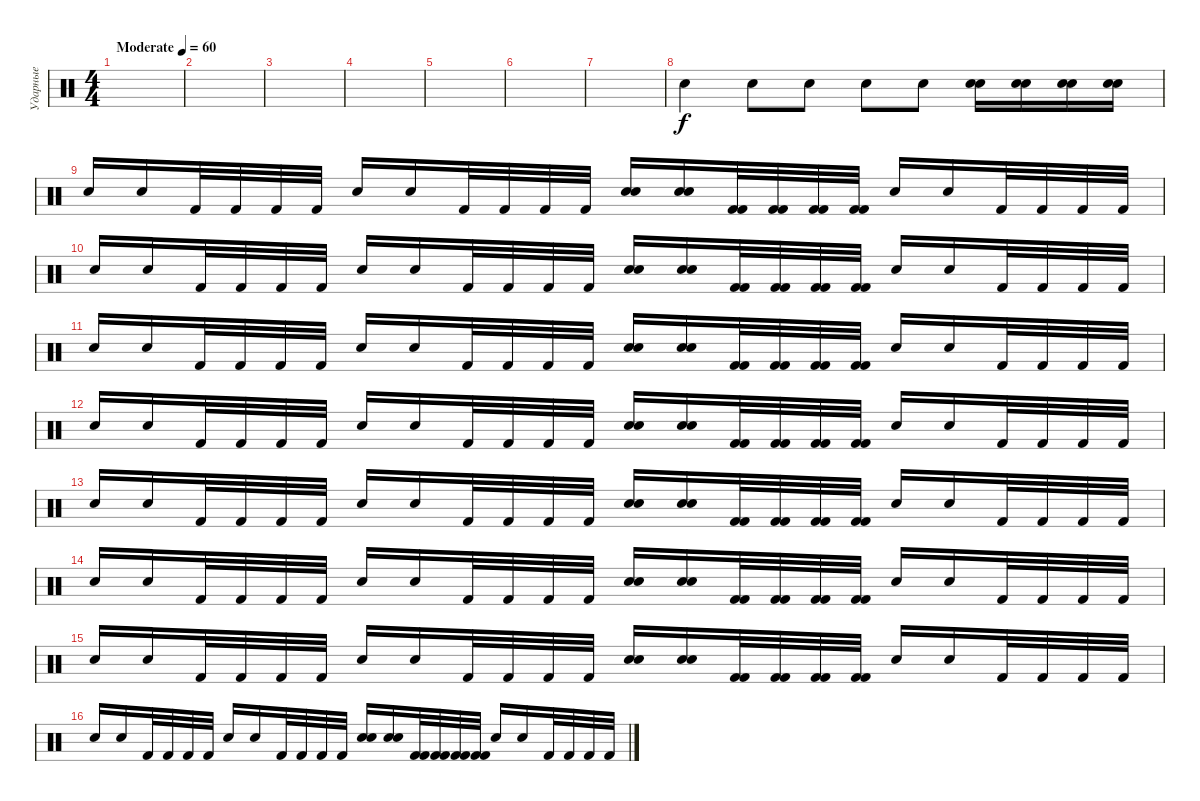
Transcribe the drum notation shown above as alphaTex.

\track ("Ударные" "Ударные") {instrument percussion}
\staff {score}
\articulation defaults
\ts (4 4)
\tempo (60 "Moderate")
\clef neutral
\ks c
|
|
|
|
|
|
|
"Snare (hit)".4 "Electric Snare (hit)".8 "Electric Snare (hit)".8 "Electric Snare (hit)".8 "Electric Snare (hit)".8 ("Electric Snare (hit)" "Electric Snare (hit)").16 ("Electric Snare (hit)" "Electric Snare (hit)").16 ("Electric Snare (hit)" "Electric Snare (hit)").16 ("Electric Snare (hit)" "Electric Snare (hit)").16 |
"Electric Snare (hit)".16 "Electric Snare (hit)".16 "Kick (hit) 2".32 "Kick (hit) 2".32 "Kick (hit) 2".32 "Kick (hit) 2".32 "Electric Snare (hit)".16 "Electric Snare (hit)".16 "Kick (hit) 2".32 "Kick (hit) 2".32 "Kick (hit) 2".32 "Kick (hit) 2".32 ("Electric Snare (hit)" "Electric Snare (hit)").16 ("Electric Snare (hit)" "Electric Snare (hit)").16 ("Kick (hit) 2" "Kick (hit) 2").32 ("Kick (hit) 2" "Kick (hit) 2").32 ("Kick (hit) 2" "Kick (hit) 2").32 ("Kick (hit) 2" "Kick (hit) 2").32 "Electric Snare (hit)".16 "Electric Snare (hit)".16 "Kick (hit) 2".32 "Kick (hit) 2".32 "Kick (hit) 2".32 "Kick (hit) 2".32 |
"Electric Snare (hit)".16 "Electric Snare (hit)".16 "Kick (hit) 2".32 "Kick (hit) 2".32 "Kick (hit) 2".32 "Kick (hit) 2".32 "Electric Snare (hit)".16 "Electric Snare (hit)".16 "Kick (hit) 2".32 "Kick (hit) 2".32 "Kick (hit) 2".32 "Kick (hit) 2".32 ("Electric Snare (hit)" "Electric Snare (hit)").16 ("Electric Snare (hit)" "Electric Snare (hit)").16 ("Kick (hit) 2" "Kick (hit) 2").32 ("Kick (hit) 2" "Kick (hit) 2").32 ("Kick (hit) 2" "Kick (hit) 2").32 ("Kick (hit) 2" "Kick (hit) 2").32 "Electric Snare (hit)".16 "Electric Snare (hit)".16 "Kick (hit) 2".32 "Kick (hit) 2".32 "Kick (hit) 2".32 "Kick (hit) 2".32 |
"Electric Snare (hit)".16 "Electric Snare (hit)".16 "Kick (hit) 2".32 "Kick (hit) 2".32 "Kick (hit) 2".32 "Kick (hit) 2".32 "Electric Snare (hit)".16 "Electric Snare (hit)".16 "Kick (hit) 2".32 "Kick (hit) 2".32 "Kick (hit) 2".32 "Kick (hit) 2".32 ("Electric Snare (hit)" "Electric Snare (hit)").16 ("Electric Snare (hit)" "Electric Snare (hit)").16 ("Kick (hit) 2" "Kick (hit) 2").32 ("Kick (hit) 2" "Kick (hit) 2").32 ("Kick (hit) 2" "Kick (hit) 2").32 ("Kick (hit) 2" "Kick (hit) 2").32 "Electric Snare (hit)".16 "Electric Snare (hit)".16 "Kick (hit) 2".32 "Kick (hit) 2".32 "Kick (hit) 2".32 "Kick (hit) 2".32 |
"Electric Snare (hit)".16 "Electric Snare (hit)".16 "Kick (hit) 2".32 "Kick (hit) 2".32 "Kick (hit) 2".32 "Kick (hit) 2".32 "Electric Snare (hit)".16 "Electric Snare (hit)".16 "Kick (hit) 2".32 "Kick (hit) 2".32 "Kick (hit) 2".32 "Kick (hit) 2".32 ("Electric Snare (hit)" "Electric Snare (hit)").16 ("Electric Snare (hit)" "Electric Snare (hit)").16 ("Kick (hit) 2" "Kick (hit) 2").32 ("Kick (hit) 2" "Kick (hit) 2").32 ("Kick (hit) 2" "Kick (hit) 2").32 ("Kick (hit) 2" "Kick (hit) 2").32 "Electric Snare (hit)".16 "Electric Snare (hit)".16 "Kick (hit) 2".32 "Kick (hit) 2".32 "Kick (hit) 2".32 "Kick (hit) 2".32 |
"Electric Snare (hit)".16 "Electric Snare (hit)".16 "Kick (hit) 2".32 "Kick (hit) 2".32 "Kick (hit) 2".32 "Kick (hit) 2".32 "Electric Snare (hit)".16 "Electric Snare (hit)".16 "Kick (hit) 2".32 "Kick (hit) 2".32 "Kick (hit) 2".32 "Kick (hit) 2".32 ("Electric Snare (hit)" "Electric Snare (hit)").16 ("Electric Snare (hit)" "Electric Snare (hit)").16 ("Kick (hit) 2" "Kick (hit) 2").32 ("Kick (hit) 2" "Kick (hit) 2").32 ("Kick (hit) 2" "Kick (hit) 2").32 ("Kick (hit) 2" "Kick (hit) 2").32 "Electric Snare (hit)".16 "Electric Snare (hit)".16 "Kick (hit) 2".32 "Kick (hit) 2".32 "Kick (hit) 2".32 "Kick (hit) 2".32 |
"Electric Snare (hit)".16 "Electric Snare (hit)".16 "Kick (hit) 2".32 "Kick (hit) 2".32 "Kick (hit) 2".32 "Kick (hit) 2".32 "Electric Snare (hit)".16 "Electric Snare (hit)".16 "Kick (hit) 2".32 "Kick (hit) 2".32 "Kick (hit) 2".32 "Kick (hit) 2".32 ("Electric Snare (hit)" "Electric Snare (hit)").16 ("Electric Snare (hit)" "Electric Snare (hit)").16 ("Kick (hit) 2" "Kick (hit) 2").32 ("Kick (hit) 2" "Kick (hit) 2").32 ("Kick (hit) 2" "Kick (hit) 2").32 ("Kick (hit) 2" "Kick (hit) 2").32 "Electric Snare (hit)".16 "Electric Snare (hit)".16 "Kick (hit) 2".32 "Kick (hit) 2".32 "Kick (hit) 2".32 "Kick (hit) 2".32 |
"Electric Snare (hit)".16 "Electric Snare (hit)".16 "Kick (hit) 2".32 "Kick (hit) 2".32 "Kick (hit) 2".32 "Kick (hit) 2".32 "Electric Snare (hit)".16 "Electric Snare (hit)".16 "Kick (hit) 2".32 "Kick (hit) 2".32 "Kick (hit) 2".32 "Kick (hit) 2".32 ("Electric Snare (hit)" "Electric Snare (hit)").16 ("Electric Snare (hit)" "Electric Snare (hit)").16 ("Kick (hit) 2" "Kick (hit) 2").32 ("Kick (hit) 2" "Kick (hit) 2").32 ("Kick (hit) 2" "Kick (hit) 2").32 ("Kick (hit) 2" "Kick (hit) 2").32 "Electric Snare (hit)".16 "Electric Snare (hit)".16 "Kick (hit) 2".32 "Kick (hit) 2".32 "Kick (hit) 2".32 "Kick (hit) 2".32 |
"Electric Snare (hit)".16 "Electric Snare (hit)".16 "Kick (hit) 2".32 "Kick (hit) 2".32 "Kick (hit) 2".32 "Kick (hit) 2".32 "Electric Snare (hit)".16 "Electric Snare (hit)".16 "Kick (hit) 2".32 "Kick (hit) 2".32 "Kick (hit) 2".32 "Kick (hit) 2".32 ("Electric Snare (hit)" "Electric Snare (hit)").16 ("Electric Snare (hit)" "Electric Snare (hit)").16 ("Kick (hit) 2" "Kick (hit) 2").32 ("Kick (hit) 2" "Kick (hit) 2").32 ("Kick (hit) 2" "Kick (hit) 2").32 ("Kick (hit) 2" "Kick (hit) 2").32 "Electric Snare (hit)".16 "Electric Snare (hit)".16 "Kick (hit) 2".32 "Kick (hit) 2".32 "Kick (hit) 2".32 "Kick (hit) 2".32
